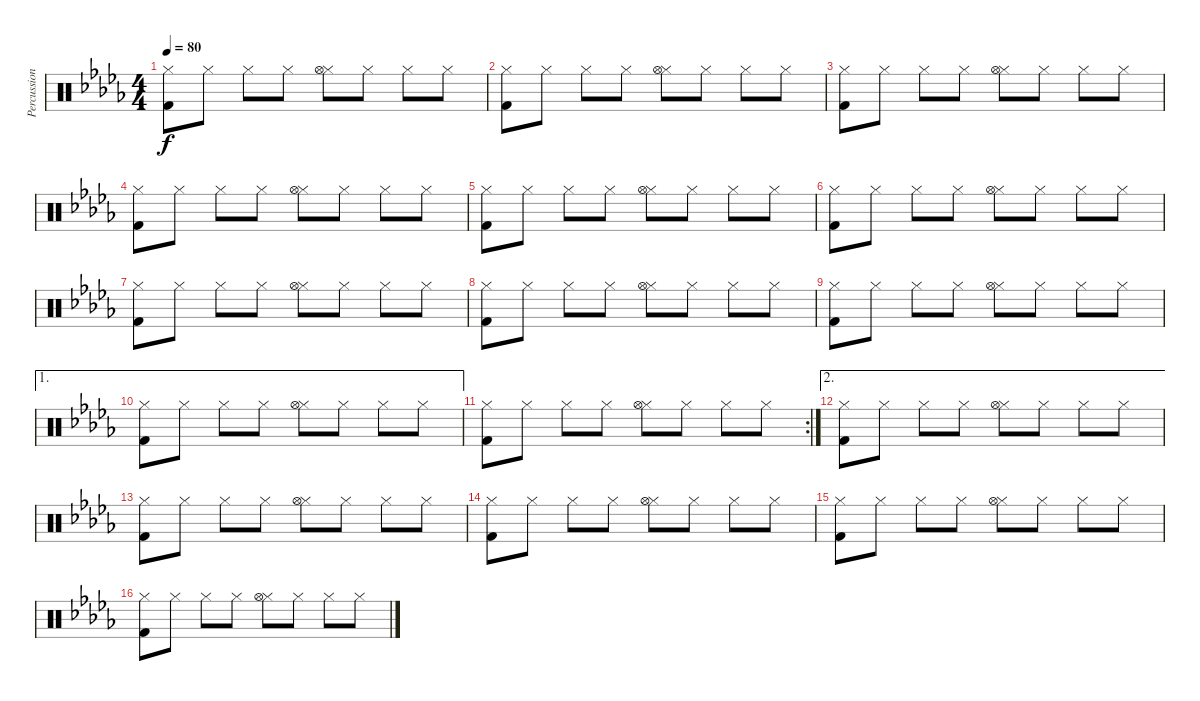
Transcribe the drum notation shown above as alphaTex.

\track ("Percussion" "Percussion") {instrument percussion}
\staff {score}
\articulation defaults
\ts (4 4)
\tempo 80
\clef neutral
\ks db
("Hi-Hat (closed)" "Kick (hit) 2").8{dy f} "Hi-Hat (closed)".8 "Hi-Hat (closed)".8 "Hi-Hat (closed)".8 ("Hi-Hat (closed)" "Hi-Hat (open)").8 "Hi-Hat (closed)".8 "Hi-Hat (closed)".8 "Hi-Hat (closed)".8 |
("Hi-Hat (closed)" "Kick (hit) 2").8 "Hi-Hat (closed)".8 "Hi-Hat (closed)".8 "Hi-Hat (closed)".8 ("Hi-Hat (closed)" "Hi-Hat (open)").8 "Hi-Hat (closed)".8 "Hi-Hat (closed)".8 "Hi-Hat (closed)".8 |
("Hi-Hat (closed)" "Kick (hit) 2").8 "Hi-Hat (closed)".8 "Hi-Hat (closed)".8 "Hi-Hat (closed)".8 ("Hi-Hat (closed)" "Hi-Hat (open)").8 "Hi-Hat (closed)".8 "Hi-Hat (closed)".8 "Hi-Hat (closed)".8 |
("Hi-Hat (closed)" "Kick (hit) 2").8 "Hi-Hat (closed)".8 "Hi-Hat (closed)".8 "Hi-Hat (closed)".8 ("Hi-Hat (closed)" "Hi-Hat (open)").8 "Hi-Hat (closed)".8 "Hi-Hat (closed)".8 "Hi-Hat (closed)".8 |
("Hi-Hat (closed)" "Kick (hit) 2").8 "Hi-Hat (closed)".8 "Hi-Hat (closed)".8 "Hi-Hat (closed)".8 ("Hi-Hat (closed)" "Hi-Hat (open)").8 "Hi-Hat (closed)".8 "Hi-Hat (closed)".8 "Hi-Hat (closed)".8 |
("Hi-Hat (closed)" "Kick (hit) 2").8 "Hi-Hat (closed)".8 "Hi-Hat (closed)".8 "Hi-Hat (closed)".8 ("Hi-Hat (closed)" "Hi-Hat (open)").8 "Hi-Hat (closed)".8 "Hi-Hat (closed)".8 "Hi-Hat (closed)".8 |
("Hi-Hat (closed)" "Kick (hit) 2").8 "Hi-Hat (closed)".8 "Hi-Hat (closed)".8 "Hi-Hat (closed)".8 ("Hi-Hat (closed)" "Hi-Hat (open)").8 "Hi-Hat (closed)".8 "Hi-Hat (closed)".8 "Hi-Hat (closed)".8 |
("Hi-Hat (closed)" "Kick (hit) 2").8 "Hi-Hat (closed)".8 "Hi-Hat (closed)".8 "Hi-Hat (closed)".8 ("Hi-Hat (closed)" "Hi-Hat (open)").8 "Hi-Hat (closed)".8 "Hi-Hat (closed)".8 "Hi-Hat (closed)".8 |
("Hi-Hat (closed)" "Kick (hit) 2").8 "Hi-Hat (closed)".8 "Hi-Hat (closed)".8 "Hi-Hat (closed)".8 ("Hi-Hat (closed)" "Hi-Hat (open)").8 "Hi-Hat (closed)".8 "Hi-Hat (closed)".8 "Hi-Hat (closed)".8 |
\ae 1
("Hi-Hat (closed)" "Kick (hit) 2").8 "Hi-Hat (closed)".8 "Hi-Hat (closed)".8 "Hi-Hat (closed)".8 ("Hi-Hat (closed)" "Hi-Hat (open)").8 "Hi-Hat (closed)".8 "Hi-Hat (closed)".8 "Hi-Hat (closed)".8 |
\rc 2
("Hi-Hat (closed)" "Kick (hit) 2").8 "Hi-Hat (closed)".8 "Hi-Hat (closed)".8 "Hi-Hat (closed)".8 ("Hi-Hat (closed)" "Hi-Hat (open)").8 "Hi-Hat (closed)".8 "Hi-Hat (closed)".8 "Hi-Hat (closed)".8 |
\ae 2
("Hi-Hat (closed)" "Kick (hit) 2").8 "Hi-Hat (closed)".8 "Hi-Hat (closed)".8 "Hi-Hat (closed)".8 ("Hi-Hat (closed)" "Hi-Hat (open)").8 "Hi-Hat (closed)".8 "Hi-Hat (closed)".8 "Hi-Hat (closed)".8 |
("Hi-Hat (closed)" "Kick (hit) 2").8 "Hi-Hat (closed)".8 "Hi-Hat (closed)".8 "Hi-Hat (closed)".8 ("Hi-Hat (closed)" "Hi-Hat (open)").8 "Hi-Hat (closed)".8 "Hi-Hat (closed)".8 "Hi-Hat (closed)".8 |
("Hi-Hat (closed)" "Kick (hit) 2").8 "Hi-Hat (closed)".8 "Hi-Hat (closed)".8 "Hi-Hat (closed)".8 ("Hi-Hat (closed)" "Hi-Hat (open)").8 "Hi-Hat (closed)".8 "Hi-Hat (closed)".8 "Hi-Hat (closed)".8 |
("Hi-Hat (closed)" "Kick (hit) 2").8 "Hi-Hat (closed)".8 "Hi-Hat (closed)".8 "Hi-Hat (closed)".8 ("Hi-Hat (closed)" "Hi-Hat (open)").8 "Hi-Hat (closed)".8 "Hi-Hat (closed)".8 "Hi-Hat (closed)".8 |
("Hi-Hat (closed)" "Kick (hit) 2").8 "Hi-Hat (closed)".8 "Hi-Hat (closed)".8 "Hi-Hat (closed)".8 ("Hi-Hat (closed)" "Hi-Hat (open)").8 "Hi-Hat (closed)".8 "Hi-Hat (closed)".8 "Hi-Hat (closed)".8
